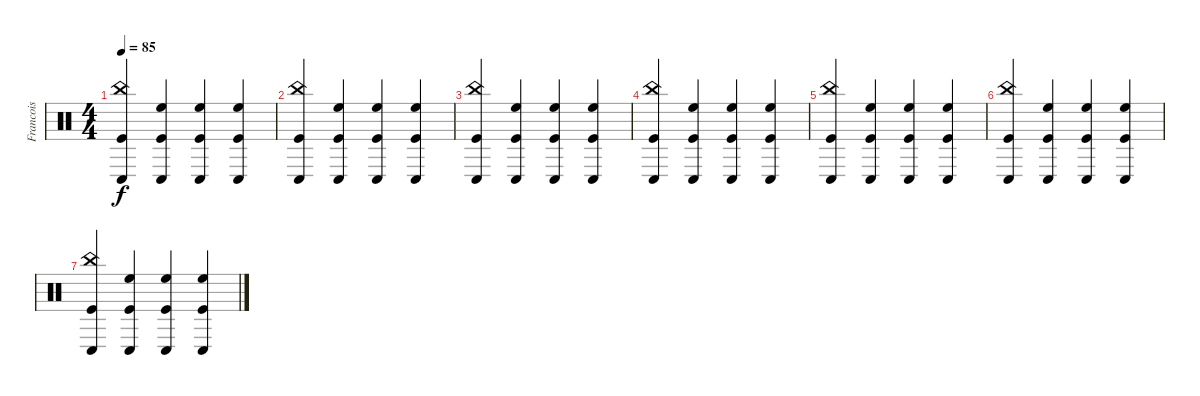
\track ("Francois" "Francois") {instrument percussion}
\staff {score}
\articulation defaults
\ts (4 4)
\tempo 85
\clef neutral
\ks c
("China (hit)" "Kick (hit)" "Conga low (hit)").4{dy f} ("High Floor Tom (hit)" "Kick (hit)" "Conga low (hit)").4 ("High Floor Tom (hit)" "Kick (hit)" "Conga low (hit)").4 ("High Floor Tom (hit)" "Kick (hit)" "Conga low (hit)").4 |
("China (hit)" "Kick (hit)" "Conga low (hit)").4 ("High Floor Tom (hit)" "Kick (hit)" "Conga low (hit)").4 ("High Floor Tom (hit)" "Kick (hit)" "Conga low (hit)").4 ("High Floor Tom (hit)" "Kick (hit)" "Conga low (hit)").4 |
("China (hit)" "Kick (hit)" "Conga low (hit)").4 ("High Floor Tom (hit)" "Kick (hit)" "Conga low (hit)").4 ("High Floor Tom (hit)" "Kick (hit)" "Conga low (hit)").4 ("High Floor Tom (hit)" "Kick (hit)" "Conga low (hit)").4 |
("China (hit)" "Kick (hit)" "Conga low (hit)").4 ("High Floor Tom (hit)" "Kick (hit)" "Conga low (hit)").4 ("High Floor Tom (hit)" "Kick (hit)" "Conga low (hit)").4 ("High Floor Tom (hit)" "Kick (hit)" "Conga low (hit)").4 |
("China (hit)" "Kick (hit)" "Conga low (hit)").4 ("High Floor Tom (hit)" "Kick (hit)" "Conga low (hit)").4 ("High Floor Tom (hit)" "Kick (hit)" "Conga low (hit)").4 ("High Floor Tom (hit)" "Kick (hit)" "Conga low (hit)").4 |
("China (hit)" "Kick (hit)" "Conga low (hit)").4 ("High Floor Tom (hit)" "Kick (hit)" "Conga low (hit)").4 ("High Floor Tom (hit)" "Kick (hit)" "Conga low (hit)").4 ("High Floor Tom (hit)" "Kick (hit)" "Conga low (hit)").4 |
("China (hit)" "Kick (hit)" "Conga low (hit)").4 ("High Floor Tom (hit)" "Kick (hit)" "Conga low (hit)").4 ("High Floor Tom (hit)" "Kick (hit)" "Conga low (hit)").4 ("High Floor Tom (hit)" "Kick (hit)" "Conga low (hit)").4
